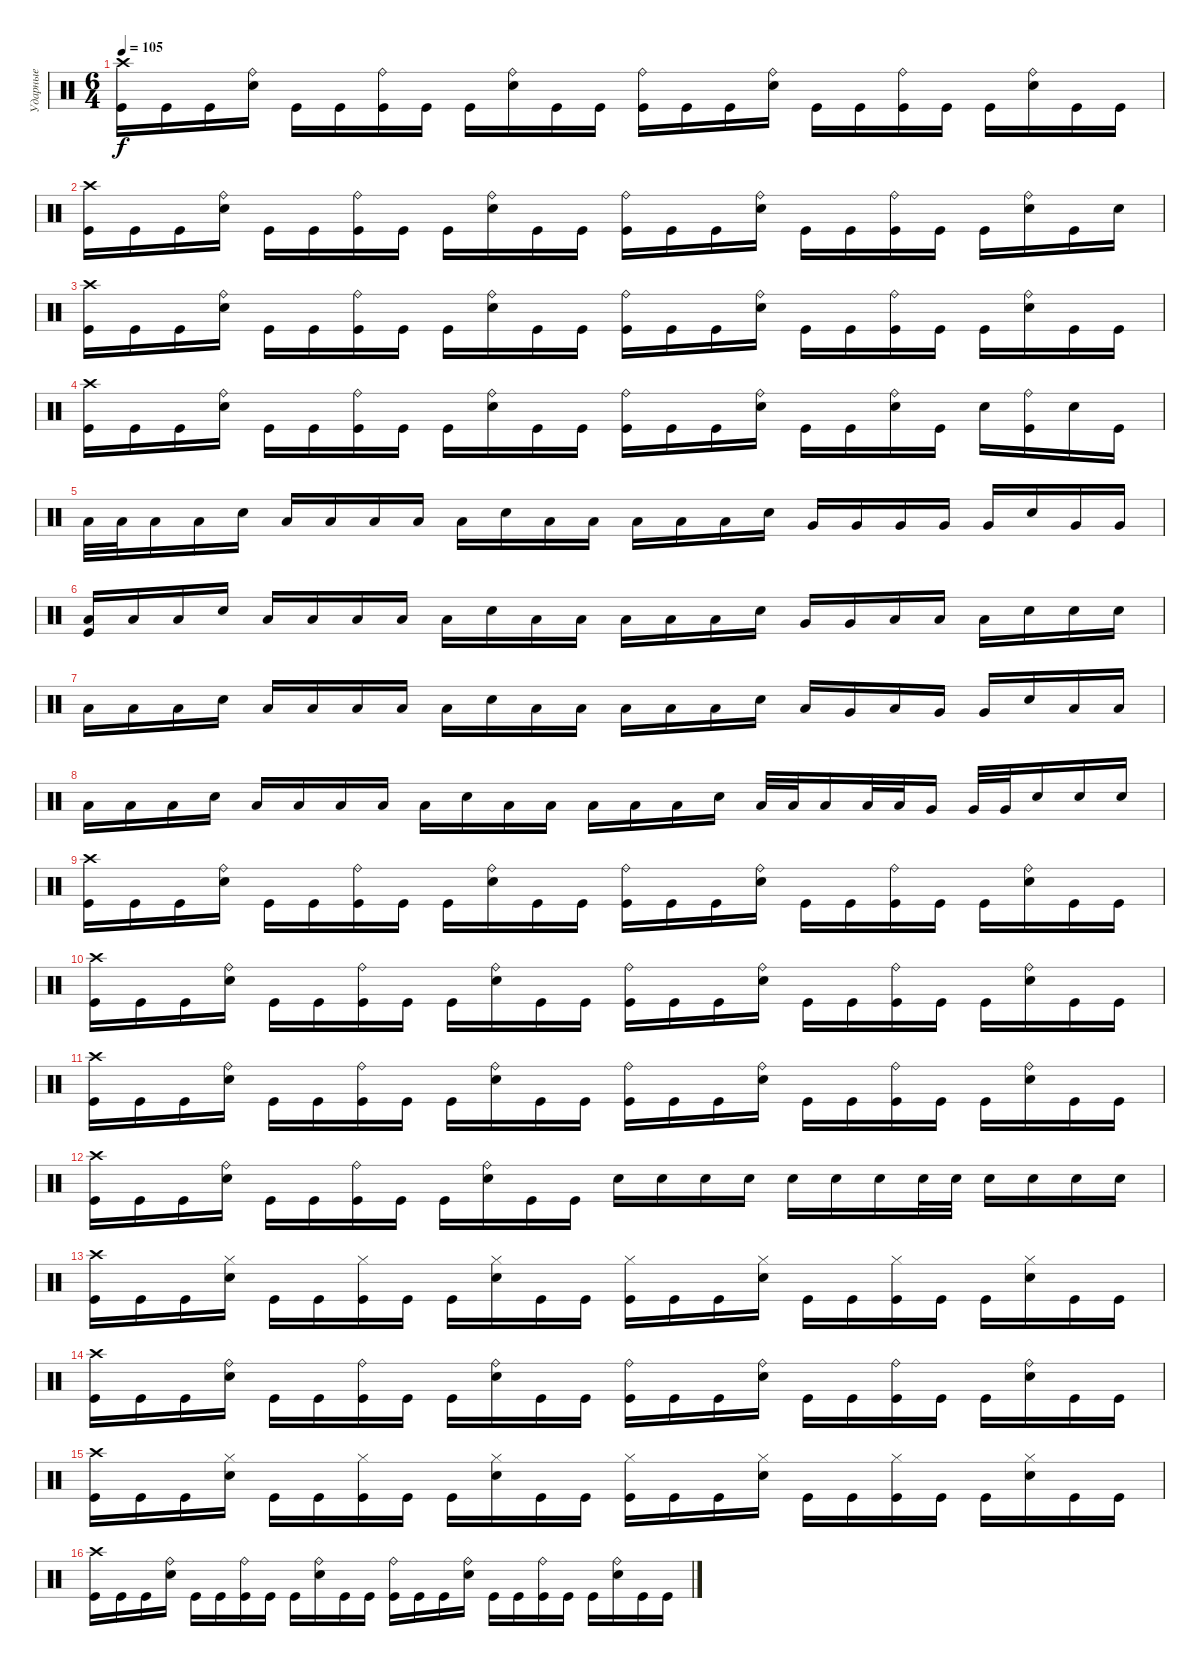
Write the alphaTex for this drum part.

\track ("Ударные" "Ударные") {instrument percussion}
\staff {score}
\articulation defaults
\ts (6 4)
\tempo 105
\clef neutral
\ks c
("Crash high (hit)" "Kick (hit)").16{dy f} "Kick (hit)".16 "Kick (hit)".16 ("Ride (bell)" "Electric Snare (hit)").16 "Kick (hit)".16 "Kick (hit)".16 ("Ride (bell)" "Kick (hit)").16 "Kick (hit)".16 "Kick (hit)".16 ("Ride (bell)" "Electric Snare (hit)").16 "Kick (hit)".16 "Kick (hit)".16 ("Ride (bell)" "Kick (hit)").16 "Kick (hit)".16 "Kick (hit)".16 ("Ride (bell)" "Electric Snare (hit)").16 "Kick (hit)".16 "Kick (hit)".16 ("Ride (bell)" "Kick (hit)").16 "Kick (hit)".16 "Kick (hit)".16 ("Ride (bell)" "Electric Snare (hit)").16 "Kick (hit)".16 "Kick (hit)".16 |
("Crash high (hit)" "Kick (hit)").16 "Kick (hit)".16 "Kick (hit)".16 ("Ride (bell)" "Electric Snare (hit)").16 "Kick (hit)".16 "Kick (hit)".16 ("Ride (bell)" "Kick (hit)").16 "Kick (hit)".16 "Kick (hit)".16 ("Ride (bell)" "Electric Snare (hit)").16 "Kick (hit)".16 "Kick (hit)".16 ("Ride (bell)" "Kick (hit)").16 "Kick (hit)".16 "Kick (hit)".16 ("Ride (bell)" "Electric Snare (hit)").16 "Kick (hit)".16 "Kick (hit)".16 ("Ride (bell)" "Kick (hit)").16 "Kick (hit)".16 "Kick (hit)".16 ("Ride (bell)" "Electric Snare (hit)").16 "Kick (hit)".16 "Electric Snare (hit)".16 |
("Crash high (hit)" "Kick (hit)").16 "Kick (hit)".16 "Kick (hit)".16 ("Ride (bell)" "Electric Snare (hit)").16 "Kick (hit)".16 "Kick (hit)".16 ("Ride (bell)" "Kick (hit)").16 "Kick (hit)".16 "Kick (hit)".16 ("Ride (bell)" "Electric Snare (hit)").16 "Kick (hit)".16 "Kick (hit)".16 ("Ride (bell)" "Kick (hit)").16 "Kick (hit)".16 "Kick (hit)".16 ("Ride (bell)" "Electric Snare (hit)").16 "Kick (hit)".16 "Kick (hit)".16 ("Ride (bell)" "Kick (hit)").16 "Kick (hit)".16 "Kick (hit)".16 ("Ride (bell)" "Electric Snare (hit)").16 "Kick (hit)".16 "Kick (hit)".16 |
("Crash high (hit)" "Kick (hit)").16 "Kick (hit)".16 "Kick (hit)".16 ("Ride (bell)" "Electric Snare (hit)").16 "Kick (hit)".16 "Kick (hit)".16 ("Ride (bell)" "Kick (hit)").16 "Kick (hit)".16 "Kick (hit)".16 ("Ride (bell)" "Electric Snare (hit)").16 "Kick (hit)".16 "Kick (hit)".16 ("Ride (bell)" "Kick (hit)").16 "Kick (hit)".16 "Kick (hit)".16 ("Ride (bell)" "Electric Snare (hit)").16 "Kick (hit)".16 "Kick (hit)".16 ("Ride (bell)" "Electric Snare (hit)").16 "Kick (hit)".16 "Electric Snare (hit)".16 ("Ride (bell)" "Kick (hit)").16 "Electric Snare (hit)".16 "Kick (hit)".16 |
"Low Tom (hit)".32 "Low Tom (hit)".32 "Low Tom (hit)".16 "Low Tom (hit)".16 "Electric Snare (hit)".16 "Low Tom (hit)".16 "Low Tom (hit)".16 "Low Tom (hit)".16 "Low Tom (hit)".16 "Low Tom (hit)".16 "Electric Snare (hit)".16 "Low Tom (hit)".16 "Low Tom (hit)".16 "Low Tom (hit)".16 "Low Tom (hit)".16 "Low Tom (hit)".16 "Electric Snare (hit)".16 "Very Low Tom (hit)".16 "Very Low Tom (hit)".16 "Very Low Tom (hit)".16 "Very Low Tom (hit)".16 "Very Low Tom (hit)".16 "Electric Snare (hit)".16 "Very Low Tom (hit)".16 "Very Low Tom (hit)".16 |
("Low Tom (hit)" "Kick (hit)").16 "Low Tom (hit)".16 "Low Tom (hit)".16 "Electric Snare (hit)".16 "Low Tom (hit)".16 "Low Tom (hit)".16 "Low Tom (hit)".16 "Low Tom (hit)".16 "Low Tom (hit)".16 "Electric Snare (hit)".16 "Low Tom (hit)".16 "Low Tom (hit)".16 "Low Tom (hit)".16 "Low Tom (hit)".16 "Low Tom (hit)".16 "Electric Snare (hit)".16 "Very Low Tom (hit)".16 "Very Low Tom (hit)".16 "Low Tom (hit)".16 "Low Tom (hit)".16 "Low Tom (hit)".16 "Electric Snare (hit)".16 "Electric Snare (hit)".16 "Electric Snare (hit)".16 |
"Low Tom (hit)".16 "Low Tom (hit)".16 "Low Tom (hit)".16 "Electric Snare (hit)".16 "Low Tom (hit)".16 "Low Tom (hit)".16 "Low Tom (hit)".16 "Low Tom (hit)".16 "Low Tom (hit)".16 "Electric Snare (hit)".16 "Low Tom (hit)".16 "Low Tom (hit)".16 "Low Tom (hit)".16 "Low Tom (hit)".16 "Low Tom (hit)".16 "Electric Snare (hit)".16 "Low Tom (hit)".16 "Very Low Tom (hit)".16 "Low Tom (hit)".16 "Very Low Tom (hit)".16 "Very Low Tom (hit)".16 "Electric Snare (hit)".16 "Low Tom (hit)".16 "Low Tom (hit)".16 |
"Low Tom (hit)".16 "Low Tom (hit)".16 "Low Tom (hit)".16 "Electric Snare (hit)".16 "Low Tom (hit)".16 "Low Tom (hit)".16 "Low Tom (hit)".16 "Low Tom (hit)".16 "Low Tom (hit)".16 "Electric Snare (hit)".16 "Low Tom (hit)".16 "Low Tom (hit)".16 "Low Tom (hit)".16 "Low Tom (hit)".16 "Low Tom (hit)".16 "Electric Snare (hit)".16 "Low Tom (hit)".32 "Low Tom (hit)".32 "Low Tom (hit)".16 "Low Tom (hit)".32 "Low Tom (hit)".32 "Very Low Tom (hit)".16 "Very Low Tom (hit)".32 "Very Low Tom (hit)".32 "Electric Snare (hit)".16 "Electric Snare (hit)".16 "Electric Snare (hit)".16 |
("Crash high (hit)" "Kick (hit)").16 "Kick (hit)".16 "Kick (hit)".16 ("Ride (bell)" "Electric Snare (hit)").16 "Kick (hit)".16 "Kick (hit)".16 ("Ride (bell)" "Kick (hit)").16 "Kick (hit)".16 "Kick (hit)".16 ("Ride (bell)" "Electric Snare (hit)").16 "Kick (hit)".16 "Kick (hit)".16 ("Ride (bell)" "Kick (hit)").16 "Kick (hit)".16 "Kick (hit)".16 ("Ride (bell)" "Electric Snare (hit)").16 "Kick (hit)".16 "Kick (hit)".16 ("Ride (bell)" "Kick (hit)").16 "Kick (hit)".16 "Kick (hit)".16 ("Ride (bell)" "Electric Snare (hit)").16 "Kick (hit)".16 "Kick (hit)".16 |
("Crash high (hit)" "Kick (hit)").16 "Kick (hit)".16 "Kick (hit)".16 ("Ride (bell)" "Electric Snare (hit)").16 "Kick (hit)".16 "Kick (hit)".16 ("Ride (bell)" "Kick (hit)").16 "Kick (hit)".16 "Kick (hit)".16 ("Ride (bell)" "Electric Snare (hit)").16 "Kick (hit)".16 "Kick (hit)".16 ("Ride (bell)" "Kick (hit)").16 "Kick (hit)".16 "Kick (hit)".16 ("Ride (bell)" "Electric Snare (hit)").16 "Kick (hit)".16 "Kick (hit)".16 ("Ride (bell)" "Kick (hit)").16 "Kick (hit)".16 "Kick (hit)".16 ("Ride (bell)" "Electric Snare (hit)").16 "Kick (hit)".16 "Kick (hit)".16 |
("Crash high (hit)" "Kick (hit)").16 "Kick (hit)".16 "Kick (hit)".16 ("Ride (bell)" "Electric Snare (hit)").16 "Kick (hit)".16 "Kick (hit)".16 ("Ride (bell)" "Kick (hit)").16 "Kick (hit)".16 "Kick (hit)".16 ("Ride (bell)" "Electric Snare (hit)").16 "Kick (hit)".16 "Kick (hit)".16 ("Ride (bell)" "Kick (hit)").16 "Kick (hit)".16 "Kick (hit)".16 ("Ride (bell)" "Electric Snare (hit)").16 "Kick (hit)".16 "Kick (hit)".16 ("Ride (bell)" "Kick (hit)").16 "Kick (hit)".16 "Kick (hit)".16 ("Ride (bell)" "Electric Snare (hit)").16 "Kick (hit)".16 "Kick (hit)".16 |
("Crash high (hit)" "Kick (hit)").16 "Kick (hit)".16 "Kick (hit)".16 ("Ride (bell)" "Electric Snare (hit)").16 "Kick (hit)".16 "Kick (hit)".16 ("Ride (bell)" "Kick (hit)").16 "Kick (hit)".16 "Kick (hit)".16 ("Ride (bell)" "Electric Snare (hit)").16 "Kick (hit)".16 "Kick (hit)".16 "Electric Snare (hit)".16 "Electric Snare (hit)".16 "Electric Snare (hit)".16 "Electric Snare (hit)".16 "Electric Snare (hit)".16 "Electric Snare (hit)".16 "Electric Snare (hit)".16 "Electric Snare (hit)".32 "Electric Snare (hit)".32 "Electric Snare (hit)".16 "Electric Snare (hit)".16 "Electric Snare (hit)".16 "Electric Snare (hit)".16 |
("Crash high (hit)" "Kick (hit)").16 "Kick (hit)".16 "Kick (hit)".16 ("Hi-Hat (closed)" "Electric Snare (hit)").16 "Kick (hit)".16 "Kick (hit)".16 ("Hi-Hat (closed)" "Kick (hit)").16 "Kick (hit)".16 "Kick (hit)".16 ("Hi-Hat (closed)" "Electric Snare (hit)").16 "Kick (hit)".16 "Kick (hit)".16 ("Hi-Hat (closed)" "Kick (hit)").16 "Kick (hit)".16 "Kick (hit)".16 ("Hi-Hat (closed)" "Electric Snare (hit)").16 "Kick (hit)".16 "Kick (hit)".16 ("Hi-Hat (closed)" "Kick (hit)").16 "Kick (hit)".16 "Kick (hit)".16 ("Hi-Hat (closed)" "Electric Snare (hit)").16 "Kick (hit)".16 "Kick (hit)".16 |
("Crash high (hit)" "Kick (hit)").16 "Kick (hit)".16 "Kick (hit)".16 ("Ride (bell)" "Electric Snare (hit)").16 "Kick (hit)".16 "Kick (hit)".16 ("Ride (bell)" "Kick (hit)").16 "Kick (hit)".16 "Kick (hit)".16 ("Ride (bell)" "Electric Snare (hit)").16 "Kick (hit)".16 "Kick (hit)".16 ("Ride (bell)" "Kick (hit)").16 "Kick (hit)".16 "Kick (hit)".16 ("Ride (bell)" "Electric Snare (hit)").16 "Kick (hit)".16 "Kick (hit)".16 ("Ride (bell)" "Kick (hit)").16 "Kick (hit)".16 "Kick (hit)".16 ("Ride (bell)" "Electric Snare (hit)").16 "Kick (hit)".16 "Kick (hit)".16 |
("Crash high (hit)" "Kick (hit)").16 "Kick (hit)".16 "Kick (hit)".16 ("Hi-Hat (closed)" "Electric Snare (hit)").16 "Kick (hit)".16 "Kick (hit)".16 ("Hi-Hat (closed)" "Kick (hit)").16 "Kick (hit)".16 "Kick (hit)".16 ("Hi-Hat (closed)" "Electric Snare (hit)").16 "Kick (hit)".16 "Kick (hit)".16 ("Hi-Hat (closed)" "Kick (hit)").16 "Kick (hit)".16 "Kick (hit)".16 ("Hi-Hat (closed)" "Electric Snare (hit)").16 "Kick (hit)".16 "Kick (hit)".16 ("Hi-Hat (closed)" "Kick (hit)").16 "Kick (hit)".16 "Kick (hit)".16 ("Hi-Hat (closed)" "Electric Snare (hit)").16 "Kick (hit)".16 "Kick (hit)".16 |
("Crash high (hit)" "Kick (hit)").16 "Kick (hit)".16 "Kick (hit)".16 ("Ride (bell)" "Electric Snare (hit)").16 "Kick (hit)".16 "Kick (hit)".16 ("Ride (bell)" "Kick (hit)").16 "Kick (hit)".16 "Kick (hit)".16 ("Ride (bell)" "Electric Snare (hit)").16 "Kick (hit)".16 "Kick (hit)".16 ("Ride (bell)" "Kick (hit)").16 "Kick (hit)".16 "Kick (hit)".16 ("Ride (bell)" "Electric Snare (hit)").16 "Kick (hit)".16 "Kick (hit)".16 ("Ride (bell)" "Kick (hit)").16 "Kick (hit)".16 "Kick (hit)".16 ("Ride (bell)" "Electric Snare (hit)").16 "Kick (hit)".16 "Kick (hit)".16
